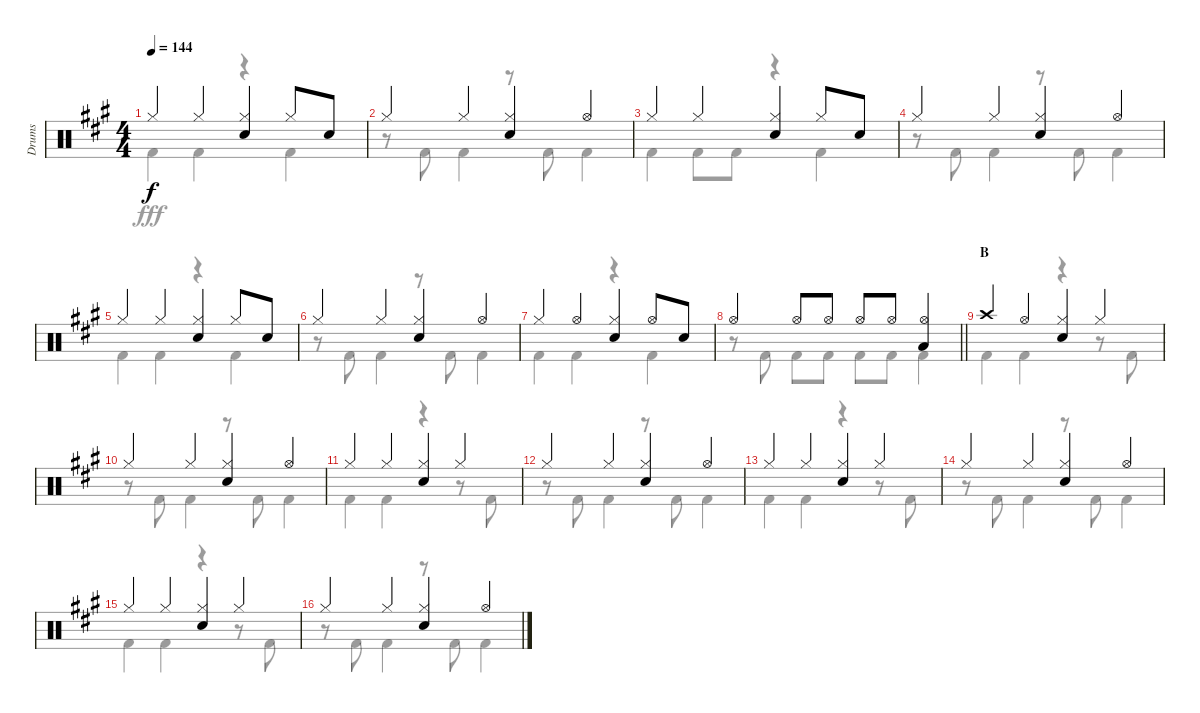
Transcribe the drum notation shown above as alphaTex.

\track ("Drums" "Drums") {instrument percussion}
\staff {score}
\articulation defaults
\voice
\ts (4 4)
\tempo 144
\clef neutral
\ks a "Hi-Hat (closed)".4{dy f} "Hi-Hat (closed)".4
("Hi-Hat (closed)" "Snare (hit) 2").4 "Hi-Hat (closed)".8 "Snare (hit) 2".8 |
"Hi-Hat (closed)".4 "Hi-Hat (closed)".4 ("Hi-Hat (closed)" "Snare (hit) 2").4 "Hi-Hat (open)".4 |
"Hi-Hat (closed)".4 "Hi-Hat (closed)".4 ("Hi-Hat (closed)" "Snare (hit) 2").4 "Hi-Hat (closed)".8 "Snare (hit) 2".8 |
"Hi-Hat (closed)".4 "Hi-Hat (closed)".4 ("Hi-Hat (closed)" "Snare (hit) 2").4 "Hi-Hat (open)".4 |
"Hi-Hat (closed)".4 "Hi-Hat (closed)".4 ("Hi-Hat (closed)" "Snare (hit) 2").4 "Hi-Hat (closed)".8 "Snare (hit) 2".8 |
"Hi-Hat (closed)".4 "Hi-Hat (closed)".4 ("Hi-Hat (closed)" "Snare (hit) 2").4 "Hi-Hat (open)".4 |
"Hi-Hat (closed)".4 "Hi-Hat (open)".4 ("Hi-Hat (closed)" "Snare (hit) 2").4 "Hi-Hat (open)".8 "Snare (hit) 2".8 |
\barLineRight lightlight "Hi-Hat (open)".4 "Hi-Hat (open)".8 "Hi-Hat (open)".8 "Hi-Hat (open)".8 "Hi-Hat (open)".8
("Hi-Hat (open)" "Low Tom (hit)").4 |
\section ("" "B")
"Crash high (hit)".4 "Hi-Hat (open)".4 ("Hi-Hat (closed)" "Snare (hit) 2").4 "Hi-Hat (closed)".4 |
"Hi-Hat (closed)".4 "Hi-Hat (closed)".4 ("Hi-Hat (closed)" "Snare (hit) 2").4 "Hi-Hat (open)".4 |
"Hi-Hat (closed)".4 "Hi-Hat (closed)".4 ("Hi-Hat (closed)" "Snare (hit) 2").4 "Hi-Hat (closed)".4 |
"Hi-Hat (closed)".4 "Hi-Hat (closed)".4 ("Hi-Hat (closed)" "Snare (hit) 2").4 "Hi-Hat (open)".4 |
"Hi-Hat (closed)".4 "Hi-Hat (closed)".4 ("Hi-Hat (closed)" "Snare (hit) 2").4 "Hi-Hat (closed)".4 |
"Hi-Hat (closed)".4 "Hi-Hat (closed)".4 ("Hi-Hat (closed)" "Snare (hit) 2").4 "Hi-Hat (open)".4 |
"Hi-Hat (closed)".4 "Hi-Hat (closed)".4 ("Hi-Hat (closed)" "Snare (hit) 2").4 "Hi-Hat (closed)".4 |
"Hi-Hat (closed)".4 "Hi-Hat (closed)".4 ("Hi-Hat (closed)" "Snare (hit) 2").4 "Hi-Hat (open)".4
\voice
\clef neutral
\ottava regular
\simile none
\ks a "Kick (hit) 2".4{dy fff} "Kick (hit) 2".4
r.4 "Kick (hit) 2".4 |
r.8 "Kick (hit) 2".8 "Kick (hit) 2".4 r.8 "Kick (hit) 2".8 "Kick (hit) 2".4 |
"Kick (hit) 2".4 "Kick (hit) 2".8 "Kick (hit) 2".8 r.4 "Kick (hit) 2".4 |
r.8 "Kick (hit) 2".8 "Kick (hit) 2".4 r.8 "Kick (hit) 2".8 "Kick (hit) 2".4 |
"Kick (hit) 2".4 "Kick (hit) 2".4 r.4 "Kick (hit) 2".4 |
r.8 "Kick (hit) 2".8 "Kick (hit) 2".4 r.8 "Kick (hit) 2".8 "Kick (hit) 2".4 |
"Kick (hit) 2".4 "Kick (hit) 2".4 r.4 "Kick (hit) 2".4 |
\barLineRight lightlight
r.8 "Kick (hit) 2".8 "Kick (hit) 2".8 "Kick (hit) 2".8 "Kick (hit) 2".8 "Kick (hit) 2".8 "Kick (hit) 2".4 |
"Kick (hit) 2".4 "Kick (hit) 2".4 r.4 r.8 "Kick (hit) 2".8 |
r.8 "Kick (hit) 2".8 "Kick (hit) 2".4 r.8 "Kick (hit) 2".8 "Kick (hit) 2".4 |
"Kick (hit) 2".4 "Kick (hit) 2".4 r.4 r.8 "Kick (hit) 2".8 |
r.8 "Kick (hit) 2".8 "Kick (hit) 2".4 r.8 "Kick (hit) 2".8 "Kick (hit) 2".4 |
"Kick (hit) 2".4 "Kick (hit) 2".4 r.4 r.8 "Kick (hit) 2".8 |
r.8 "Kick (hit) 2".8 "Kick (hit) 2".4 r.8 "Kick (hit) 2".8 "Kick (hit) 2".4 |
"Kick (hit) 2".4 "Kick (hit) 2".4 r.4 r.8 "Kick (hit) 2".8 |
r.8 "Kick (hit) 2".8 "Kick (hit) 2".4 r.8 "Kick (hit) 2".8 "Kick (hit) 2".4
